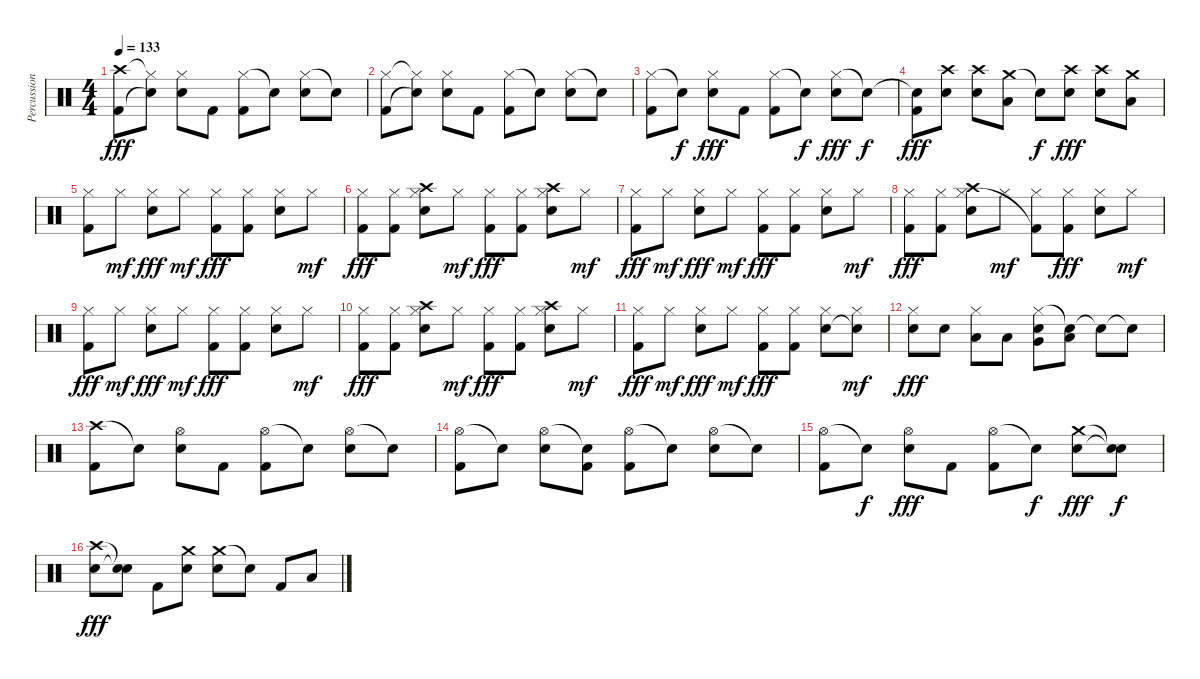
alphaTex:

\track ("Percussion" "Percussion") {instrument percussion}
\staff {score}
\articulation defaults
\ts (4 4)
\tempo 133
\clef neutral
\ks c
("Crash high (hit)" "Kick (hit) 2").8{dy fff} ("Hi-Hat (closed)"{t} "Snare (hit)"{t}).8 ("Hi-Hat (closed)" "Electric Snare (hit)").8 "Kick (hit) 2".8 ("Hi-Hat (closed)" "Kick (hit) 2").8 "Snare (hit)"{t}.8 ("Hi-Hat (closed)" "Electric Snare (hit)").8 "Snare (hit)"{t}.8 |
("Hi-Hat (closed)" "Kick (hit) 2").8 ("Hi-Hat (closed)"{t} "Snare (hit)"{t}).8 ("Hi-Hat (closed)" "Electric Snare (hit)").8 "Kick (hit) 2".8 ("Hi-Hat (closed)" "Kick (hit) 2").8 "Snare (hit)"{t}.8 ("Hi-Hat (closed)" "Electric Snare (hit)").8 "Snare (hit)"{t}.8 |
("Hi-Hat (closed)" "Kick (hit) 2").8 "Snare (hit)"{t}.8{dy f} ("Hi-Hat (closed)" "Electric Snare (hit)").8{dy fff} "Kick (hit) 2".8 ("Hi-Hat (closed)" "Kick (hit) 2").8 "Electric Snare (hit)"{t}.8{dy f} ("Hi-Hat (closed)" "Electric Snare (hit)").8{dy fff} "Snare (hit)"{t}.8{dy f} |
("Snare (hit)"{t} "Kick (hit) 2").8{dy fff} ("Crash high (hit)" "Electric Snare (hit)").8 ("Crash high (hit)" "Electric Snare (hit)").8 ("Crash medium (hit)" "Low Floor Tom (hit)").8 "Snare (hit)"{t}.8{dy f} ("Crash high (hit)" "Electric Snare (hit)").8{dy fff} ("Crash high (hit)" "Electric Snare (hit)").8 ("Crash medium (hit)" "Low Floor Tom (hit)").8 |
("Hi-Hat (closed)" "Kick (hit) 2").8 "Hi-Hat (closed)".8{dy mf} ("Hi-Hat (closed)" "Electric Snare (hit)").8{dy fff} "Hi-Hat (closed)".8{dy mf} ("Hi-Hat (closed)" "Kick (hit) 2").8{dy fff} ("Hi-Hat (closed)" "Kick (hit) 2").8 ("Hi-Hat (closed)" "Electric Snare (hit)").8 "Hi-Hat (closed)".8{dy mf} |
("Hi-Hat (closed)" "Kick (hit) 2").8{dy fff} ("Hi-Hat (closed)" "Kick (hit) 2").8 ("Crash high (hit)" "Hi-Hat (closed)" "Electric Snare (hit)").8 "Hi-Hat (closed)".8{dy mf} ("Hi-Hat (closed)" "Kick (hit) 2").8{dy fff} ("Hi-Hat (closed)" "Kick (hit) 2").8 ("Crash high (hit)" "Hi-Hat (closed)" "Electric Snare (hit)").8 "Hi-Hat (closed)".8{dy mf} |
("Hi-Hat (closed)" "Kick (hit) 2").8{dy fff} "Hi-Hat (closed)".8{dy mf} ("Hi-Hat (closed)" "Electric Snare (hit)").8{dy fff} "Hi-Hat (closed)".8{dy mf} ("Hi-Hat (closed)" "Kick (hit) 2").8{dy fff} ("Hi-Hat (closed)" "Kick (hit) 2").8 ("Hi-Hat (closed)" "Electric Snare (hit)").8 "Hi-Hat (closed)".8{dy mf} |
("Hi-Hat (closed)" "Kick (hit) 2").8{dy fff} ("Hi-Hat (closed)" "Kick (hit) 2").8 ("Crash high (hit)" "Hi-Hat (closed)" "Electric Snare (hit)").8 "Hi-Hat (closed)".8{dy mf} ("Hi-Hat (closed)" "Kick (hit) 2"{t}).8 ("Hi-Hat (closed)" "Kick (hit) 2").8{dy fff} ("Hi-Hat (closed)" "Electric Snare (hit)").8 "Hi-Hat (closed)".8{dy mf} |
("Hi-Hat (closed)" "Kick (hit) 2").8{dy fff} "Hi-Hat (closed)".8{dy mf} ("Hi-Hat (closed)" "Electric Snare (hit)").8{dy fff} "Hi-Hat (closed)".8{dy mf} ("Hi-Hat (closed)" "Kick (hit) 2").8{dy fff} ("Hi-Hat (closed)" "Kick (hit) 2").8 ("Hi-Hat (closed)" "Electric Snare (hit)").8 "Hi-Hat (closed)".8{dy mf} |
("Hi-Hat (closed)" "Kick (hit) 2").8{dy fff} ("Hi-Hat (closed)" "Kick (hit) 2").8 ("Crash high (hit)" "Hi-Hat (closed)" "Electric Snare (hit)").8 "Hi-Hat (closed)".8{dy mf} ("Hi-Hat (closed)" "Kick (hit) 2").8{dy fff} ("Hi-Hat (closed)" "Kick (hit) 2").8 ("Crash high (hit)" "Hi-Hat (closed)" "Electric Snare (hit)").8 "Hi-Hat (closed)".8{dy mf} |
("Hi-Hat (closed)" "Kick (hit) 2").8{dy fff} "Hi-Hat (closed)".8{dy mf} ("Hi-Hat (closed)" "Electric Snare (hit)").8{dy fff} "Hi-Hat (closed)".8{dy mf} ("Hi-Hat (closed)" "Kick (hit) 2").8{dy fff} ("Hi-Hat (closed)" "Kick (hit) 2").8 ("Hi-Hat (closed)" "Electric Snare (hit)").8 ("Hi-Hat (closed)" "Snare (hit)"{t}).8{dy mf} |
("Hi-Hat (closed)" "Electric Snare (hit)").8{dy fff} "Electric Snare (hit)".8 ("Hi-Hat (closed)" "Low Floor Tom (hit)").8 "Low Floor Tom (hit)".8 ("Hi-Hat (closed)" "Very Low Tom (hit)" "Electric Snare (hit)").8 ("Snare (hit)"{t} "Low Floor Tom (hit)").8 "Snare (hit)"{t}.8 "Snare (hit)"{t}.8 |
("Crash high (hit)" "Kick (hit) 2").8 "Snare (hit)"{t}.8 ("Hi-Hat (open)" "Electric Snare (hit)").8 "Kick (hit) 2".8 ("Hi-Hat (open)" "Kick (hit) 2").8 "Snare (hit)"{t}.8 ("Hi-Hat (open)" "Electric Snare (hit)").8 "Snare (hit)"{t}.8 |
("Hi-Hat (open)" "Kick (hit) 2").8 "Snare (hit)"{t}.8 ("Hi-Hat (open)" "Electric Snare (hit)").8 ("Snare (hit)"{t} "Kick (hit) 2").8 ("Hi-Hat (open)" "Kick (hit) 2").8 "Snare (hit)"{t}.8 ("Hi-Hat (open)" "Electric Snare (hit)").8 "Snare (hit)"{t}.8 |
("Hi-Hat (open)" "Kick (hit) 2").8 "Electric Snare (hit)"{t}.8{dy f} ("Hi-Hat (open)" "Electric Snare (hit)").8{dy fff} "Kick (hit) 2".8 ("Hi-Hat (open)" "Kick (hit) 2").8 "Snare (hit)"{t}.8{dy f} ("Crash medium (hit)" "Electric Snare (hit)").8{dy fff} ("Snare (hit)"{t} "Snare (hit)"{t}).8{dy f} |
("Crash high (hit)" "Electric Snare (hit)").8{dy fff} ("Snare (hit)"{t} "Snare (hit)"{t}).8 "Kick (hit) 2".8 ("Crash medium (hit)" "Electric Snare (hit)").8 ("Crash medium (hit)" "Electric Snare (hit)").8 "Snare (hit)"{t}.8 "Kick (hit) 2".8 "Low Floor Tom (hit)".8
